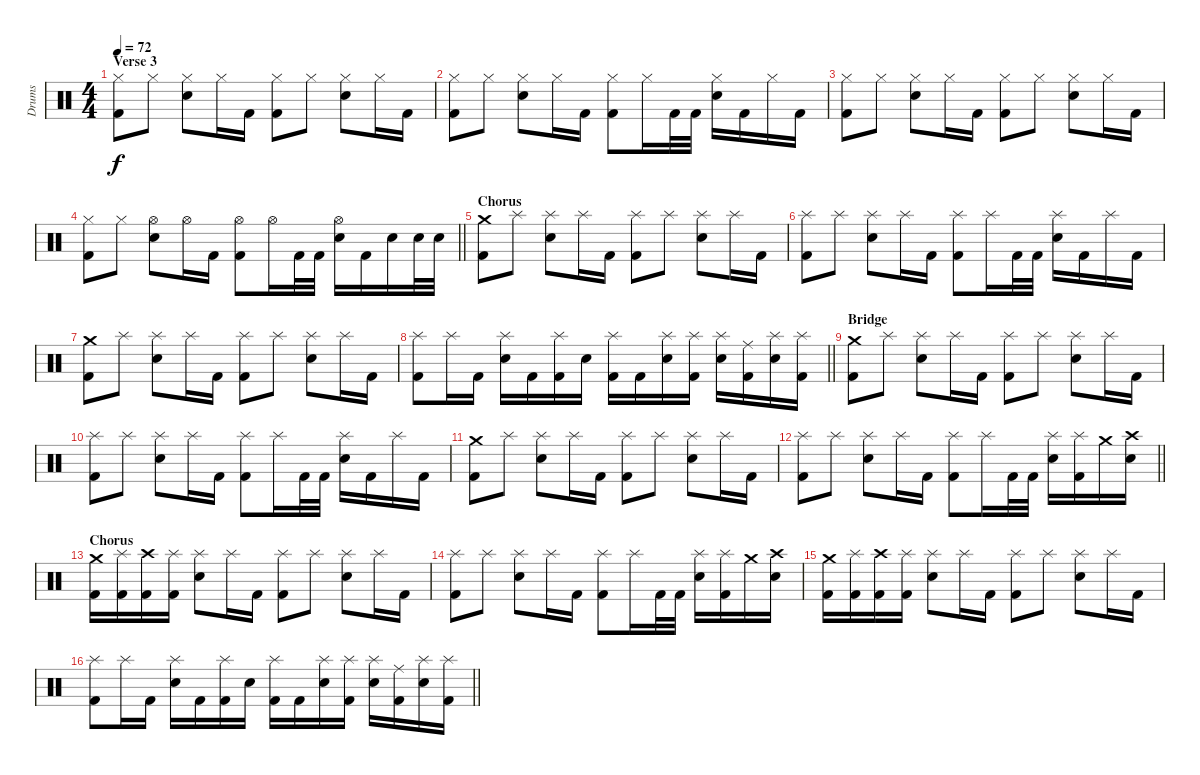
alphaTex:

\track ("Drums" "Drums") {instrument percussion}
\staff {score}
\articulation defaults
\ts (4 4)
\section ("" "Verse 3")
\tempo 72
\clef neutral
\ks c
("Hi-Hat (closed)" "Kick (hit) 2").8{dy f} "Hi-Hat (closed)".8 ("Hi-Hat (closed)" "Electric Snare (hit)").8 "Hi-Hat (closed)".16 "Kick (hit) 2".16 ("Hi-Hat (closed)" "Kick (hit) 2").8 "Hi-Hat (closed)".8 ("Hi-Hat (closed)" "Electric Snare (hit)").8 "Hi-Hat (closed)".16 "Kick (hit) 2".16 |
("Hi-Hat (closed)" "Kick (hit) 2").8 "Hi-Hat (closed)".8 ("Hi-Hat (closed)" "Electric Snare (hit)").8 "Hi-Hat (closed)".16 "Kick (hit) 2".16 ("Hi-Hat (closed)" "Kick (hit) 2").8 "Hi-Hat (closed)".16 "Kick (hit) 2".32 "Kick (hit) 2".32 ("Hi-Hat (closed)" "Electric Snare (hit)").16 "Kick (hit) 2".16 "Hi-Hat (closed)".16 "Kick (hit) 2".16 |
("Hi-Hat (closed)" "Kick (hit) 2").8 "Hi-Hat (closed)".8 ("Hi-Hat (closed)" "Electric Snare (hit)").8 "Hi-Hat (closed)".16 "Kick (hit) 2".16 ("Hi-Hat (closed)" "Kick (hit) 2").8 "Hi-Hat (closed)".8 ("Hi-Hat (closed)" "Electric Snare (hit)").8 "Hi-Hat (closed)".16 "Kick (hit) 2".16 |
\barLineRight lightlight
("Hi-Hat (closed)" "Kick (hit) 2").8 "Hi-Hat (closed)".8 ("Hi-Hat (open)" "Electric Snare (hit)").8 "Hi-Hat (open)".16 "Kick (hit) 2".16 ("Hi-Hat (open)" "Kick (hit) 2").8 "Hi-Hat (open)".16 "Kick (hit) 2".32 "Kick (hit) 2".32 ("Hi-Hat (open)" "Electric Snare (hit)").16 "Kick (hit) 2".16 "Electric Snare (hit)".16 "Electric Snare (hit)".32 "Electric Snare (hit)".32 |
\section ("" "Chorus")
("Crash medium (hit)" "Kick (hit) 2").8 "Splash (hit)".8 ("Splash (hit)" "Electric Snare (hit)").8 "Splash (hit)".16 "Kick (hit) 2".16 ("Splash (hit)" "Kick (hit) 2").8 "Splash (hit)".8 ("Splash (hit)" "Electric Snare (hit)").8 "Splash (hit)".16 "Kick (hit) 2".16 |
("Splash (hit)" "Kick (hit) 2").8 "Splash (hit)".8 ("Splash (hit)" "Electric Snare (hit)").8 "Splash (hit)".16 "Kick (hit) 2".16 ("Splash (hit)" "Kick (hit) 2").8 "Splash (hit)".16 "Kick (hit) 2".32 "Kick (hit) 2".32 ("Splash (hit)" "Electric Snare (hit)").16 "Kick (hit) 2".16 "Splash (hit)".16 "Kick (hit) 2".16 |
("Crash medium (hit)" "Kick (hit) 2").8 "Splash (hit)".8 ("Splash (hit)" "Electric Snare (hit)").8 "Splash (hit)".16 "Kick (hit) 2".16 ("Splash (hit)" "Kick (hit) 2").8 "Splash (hit)".8 ("Splash (hit)" "Electric Snare (hit)").8 "Splash (hit)".16 "Kick (hit) 2".16 |
\barLineRight lightlight
("Splash (hit)" "Kick (hit) 2").8 "Splash (hit)".16 "Kick (hit) 2".16 ("Splash (hit)" "Electric Snare (hit)").16 "Kick (hit) 2".16 ("Splash (hit)" "Kick (hit) 2").16 "Electric Snare (hit)".16 ("Splash (hit)" "Kick (hit) 2").16 "Kick (hit) 2".16 ("Splash (hit)" "Electric Snare (hit)").16 ("Splash (hit)" "Kick (hit) 2").16 ("Splash (hit)" "Electric Snare (hit)").16 ("Ride (middle)" "Kick (hit) 2").16 ("Splash (hit)" "Electric Snare (hit)").16 ("Splash (hit)" "Kick (hit) 2").16 |
\section ("" "Bridge")
("Crash medium (hit)" "Kick (hit) 2").8 "Splash (hit)".8 ("Splash (hit)" "Electric Snare (hit)").8 "Splash (hit)".16 "Kick (hit) 2".16 ("Splash (hit)" "Kick (hit) 2").8 "Splash (hit)".8 ("Splash (hit)" "Electric Snare (hit)").8 "Splash (hit)".16 "Kick (hit) 2".16 |
("Splash (hit)" "Kick (hit) 2").8 "Splash (hit)".8 ("Splash (hit)" "Electric Snare (hit)").8 "Splash (hit)".16 "Kick (hit) 2".16 ("Splash (hit)" "Kick (hit) 2").8 "Splash (hit)".16 "Kick (hit) 2".32 "Kick (hit) 2".32 ("Splash (hit)" "Electric Snare (hit)").16 "Kick (hit) 2".16 "Splash (hit)".16 "Kick (hit) 2".16 |
("Crash medium (hit)" "Kick (hit) 2").8 "Splash (hit)".8 ("Splash (hit)" "Electric Snare (hit)").8 "Splash (hit)".16 "Kick (hit) 2".16 ("Splash (hit)" "Kick (hit) 2").8 "Splash (hit)".8 ("Splash (hit)" "Electric Snare (hit)").8 "Splash (hit)".16 "Kick (hit) 2".16 |
\barLineRight lightlight
("Splash (hit)" "Kick (hit) 2").8 "Splash (hit)".8 ("Splash (hit)" "Electric Snare (hit)").8 "Splash (hit)".16 "Kick (hit) 2".16 ("Splash (hit)" "Kick (hit) 2").8 "Splash (hit)".16 "Kick (hit) 2".32 "Kick (hit) 2".32 ("Splash (hit)" "Electric Snare (hit)").16 ("Splash (hit)" "Kick (hit) 2").16 "Crash medium (hit)".16 ("Crash high (hit)" "Electric Snare (hit)").16 |
\section ("" "Chorus")
("Crash medium (hit)" "Kick (hit) 2").16 ("Splash (hit)" "Kick (hit) 2").16 ("Crash high (hit)" "Kick (hit) 2").16 ("Splash (hit)" "Kick (hit) 2").16 ("Splash (hit)" "Electric Snare (hit)").8 "Splash (hit)".16 "Kick (hit) 2".16 ("Splash (hit)" "Kick (hit) 2").8 "Splash (hit)".8 ("Splash (hit)" "Electric Snare (hit)").8 "Splash (hit)".16 "Kick (hit) 2".16 |
("Splash (hit)" "Kick (hit) 2").8 "Splash (hit)".8 ("Splash (hit)" "Electric Snare (hit)").8 "Splash (hit)".16 "Kick (hit) 2".16 ("Splash (hit)" "Kick (hit) 2").8 "Splash (hit)".16 "Kick (hit) 2".32 "Kick (hit) 2".32 ("Splash (hit)" "Electric Snare (hit)").16 ("Splash (hit)" "Kick (hit) 2").16 "Crash medium (hit)".16 ("Crash high (hit)" "Electric Snare (hit)").16 |
("Crash medium (hit)" "Kick (hit) 2").16 ("Splash (hit)" "Kick (hit) 2").16 ("Crash high (hit)" "Kick (hit) 2").16 ("Splash (hit)" "Kick (hit) 2").16 ("Splash (hit)" "Electric Snare (hit)").8 "Splash (hit)".16 "Kick (hit) 2".16 ("Splash (hit)" "Kick (hit) 2").8 "Splash (hit)".8 ("Splash (hit)" "Electric Snare (hit)").8 "Splash (hit)".16 "Kick (hit) 2".16 |
\barLineRight lightlight
("Splash (hit)" "Kick (hit) 2").8 "Splash (hit)".16 "Kick (hit) 2".16 ("Splash (hit)" "Electric Snare (hit)").16 "Kick (hit) 2".16 ("Splash (hit)" "Kick (hit) 2").16 "Electric Snare (hit)".16 ("Splash (hit)" "Kick (hit) 2").16 "Kick (hit) 2".16 ("Splash (hit)" "Electric Snare (hit)").16 ("Splash (hit)" "Kick (hit) 2").16 ("Splash (hit)" "Electric Snare (hit)").16 ("Ride (middle)" "Kick (hit) 2").16 ("Splash (hit)" "Electric Snare (hit)").16 ("Splash (hit)" "Kick (hit) 2").16
